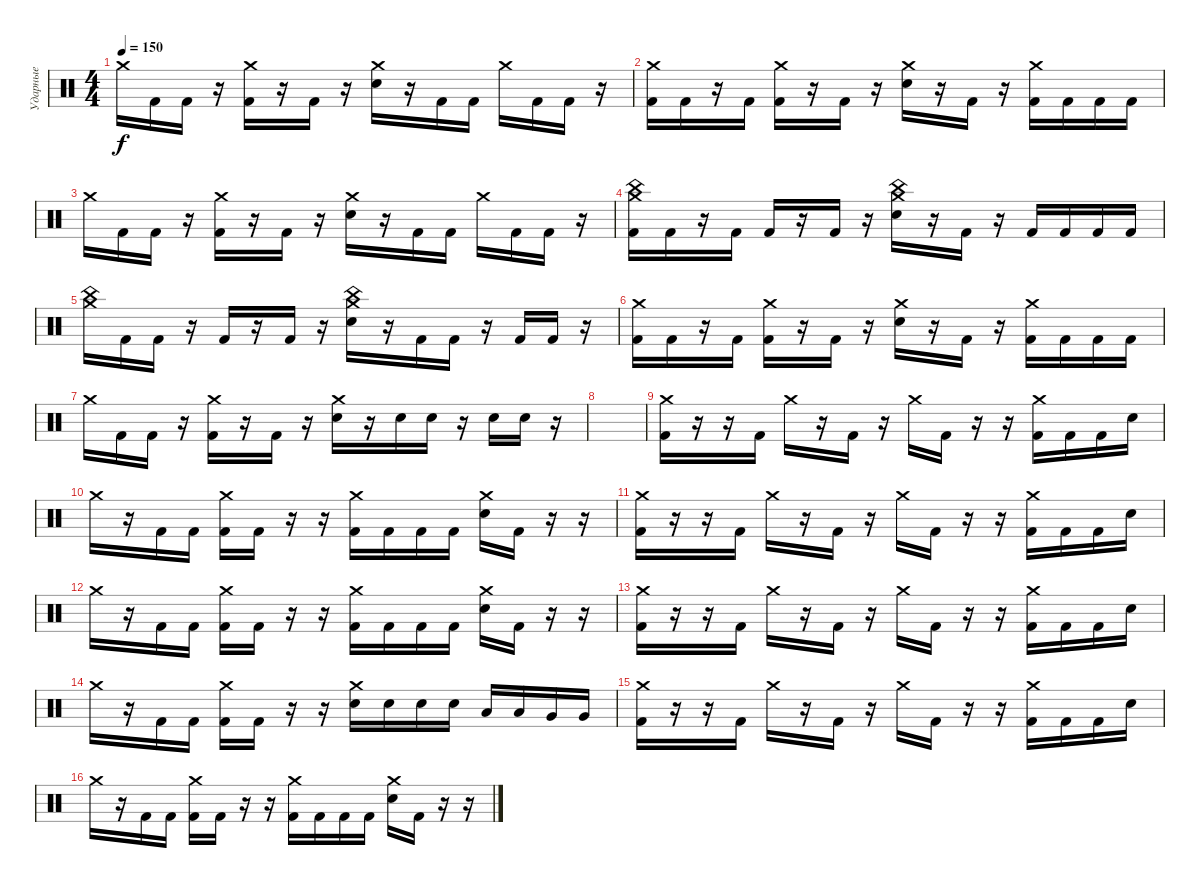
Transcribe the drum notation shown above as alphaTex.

\track ("Ударные" "Ударные") {instrument percussion}
\staff {score}
\articulation defaults
\ts (4 4)
\tempo 150
\clef neutral
\ks c "Crash medium (hit)".16{dy f} "Kick (hit) 2".16 "Kick (hit) 2".16
r.16 ("Crash medium (hit)" "Kick (hit) 2").16 r.16 "Kick (hit) 2".16 r.16 ("Crash medium (hit)" "Electric Snare (hit)").16 r.16 "Kick (hit) 2".16 "Kick (hit) 2".16 "Crash medium (hit)".16 "Kick (hit) 2".16 "Kick (hit) 2".16 r.16 |
("Crash medium (hit)" "Kick (hit) 2").16 "Kick (hit) 2".16 r.16 "Kick (hit) 2".16 ("Crash medium (hit)" "Kick (hit) 2").16 r.16 "Kick (hit) 2".16 r.16 ("Crash medium (hit)" "Electric Snare (hit)").16 r.16 "Kick (hit) 2".16 r.16 ("Crash medium (hit)" "Kick (hit) 2").16 "Kick (hit) 2".16 "Kick (hit) 2".16 "Kick (hit) 2".16 |
"Crash medium (hit)".16 "Kick (hit) 2".16 "Kick (hit) 2".16 r.16 ("Crash medium (hit)" "Kick (hit) 2").16 r.16 "Kick (hit) 2".16 r.16 ("Crash medium (hit)" "Electric Snare (hit)").16 r.16 "Kick (hit) 2".16 "Kick (hit) 2".16 "Crash medium (hit)".16 "Kick (hit) 2".16 "Kick (hit) 2".16 r.16 |
("Crash medium (hit)" "China (hit)" "Kick (hit) 2").16 "Kick (hit) 2".16 r.16 "Kick (hit) 2".16 "Kick (hit) 2".16 r.16 "Kick (hit) 2".16 r.16 ("Crash medium (hit)" "China (hit)" "Electric Snare (hit)").16 r.16 "Kick (hit) 2".16 r.16 "Kick (hit) 2".16 "Kick (hit) 2".16 "Kick (hit) 2".16 "Kick (hit) 2".16 |
("Crash medium (hit)" "China (hit)").16 "Kick (hit) 2".16 "Kick (hit) 2".16 r.16 "Kick (hit) 2".16 r.16 "Kick (hit) 2".16 r.16 ("Crash medium (hit)" "China (hit)" "Electric Snare (hit)").16 r.16 "Kick (hit) 2".16 "Kick (hit) 2".16 r.16 "Kick (hit) 2".16 "Kick (hit) 2".16 r.16 |
("Crash medium (hit)" "Kick (hit) 2").16 "Kick (hit) 2".16 r.16 "Kick (hit) 2".16 ("Crash medium (hit)" "Kick (hit) 2").16 r.16 "Kick (hit) 2".16 r.16 ("Crash medium (hit)" "Electric Snare (hit)").16 r.16 "Kick (hit) 2".16 r.16 ("Crash medium (hit)" "Kick (hit) 2").16 "Kick (hit) 2".16 "Kick (hit) 2".16 "Kick (hit) 2".16 |
"Crash medium (hit)".16 "Kick (hit) 2".16 "Kick (hit) 2".16 r.16 ("Crash medium (hit)" "Kick (hit) 2").16 r.16 "Kick (hit) 2".16 r.16 ("Crash medium (hit)" "Electric Snare (hit)").16 r.16 "Electric Snare (hit)".16 "Electric Snare (hit)".16 r.16 "Electric Snare (hit)".16 "Electric Snare (hit)".16 r.16 |
|
("Crash medium (hit)" "Kick (hit) 2").16 r.16 r.16 "Kick (hit) 2".16 "Crash medium (hit)".16 r.16 "Kick (hit) 2".16 r.16 "Crash medium (hit)".16 "Kick (hit) 2".16 r.16 r.16 ("Crash medium (hit)" "Kick (hit) 2").16 "Kick (hit) 2".16 "Kick (hit) 2".16 "Electric Snare (hit)".16 |
"Crash medium (hit)".16 r.16 "Kick (hit) 2".16 "Kick (hit) 2".16 ("Crash medium (hit)" "Kick (hit) 2").16 "Kick (hit) 2".16 r.16 r.16 ("Crash medium (hit)" "Kick (hit) 2").16 "Kick (hit) 2".16 "Kick (hit) 2".16 "Kick (hit) 2".16 ("Crash medium (hit)" "Electric Snare (hit)").16 "Kick (hit) 2".16 r.16 r.16 |
("Crash medium (hit)" "Kick (hit) 2").16 r.16 r.16 "Kick (hit) 2".16 "Crash medium (hit)".16 r.16 "Kick (hit) 2".16 r.16 "Crash medium (hit)".16 "Kick (hit) 2".16 r.16 r.16 ("Crash medium (hit)" "Kick (hit) 2").16 "Kick (hit) 2".16 "Kick (hit) 2".16 "Electric Snare (hit)".16 |
"Crash medium (hit)".16 r.16 "Kick (hit) 2".16 "Kick (hit) 2".16 ("Crash medium (hit)" "Kick (hit) 2").16 "Kick (hit) 2".16 r.16 r.16 ("Crash medium (hit)" "Kick (hit) 2").16 "Kick (hit) 2".16 "Kick (hit) 2".16 "Kick (hit) 2".16 ("Crash medium (hit)" "Electric Snare (hit)").16 "Kick (hit) 2".16 r.16 r.16 |
("Crash medium (hit)" "Kick (hit) 2").16 r.16 r.16 "Kick (hit) 2".16 "Crash medium (hit)".16 r.16 "Kick (hit) 2".16 r.16 "Crash medium (hit)".16 "Kick (hit) 2".16 r.16 r.16 ("Crash medium (hit)" "Kick (hit) 2").16 "Kick (hit) 2".16 "Kick (hit) 2".16 "Electric Snare (hit)".16 |
"Crash medium (hit)".16 r.16 "Kick (hit) 2".16 "Kick (hit) 2".16 ("Crash medium (hit)" "Kick (hit) 2").16 "Kick (hit) 2".16 r.16 r.16 ("Crash medium (hit)" "Electric Snare (hit)").16 "Electric Snare (hit)".16 "Electric Snare (hit)".16 "Electric Snare (hit)".16 "Low Tom (hit)".16 "Low Tom (hit)".16 "Very Low Tom (hit)".16 "Very Low Tom (hit)".16 |
("Crash medium (hit)" "Kick (hit) 2").16 r.16 r.16 "Kick (hit) 2".16 "Crash medium (hit)".16 r.16 "Kick (hit) 2".16 r.16 "Crash medium (hit)".16 "Kick (hit) 2".16 r.16 r.16 ("Crash medium (hit)" "Kick (hit) 2").16 "Kick (hit) 2".16 "Kick (hit) 2".16 "Electric Snare (hit)".16 |
"Crash medium (hit)".16 r.16 "Kick (hit) 2".16 "Kick (hit) 2".16 ("Crash medium (hit)" "Kick (hit) 2").16 "Kick (hit) 2".16 r.16 r.16 ("Crash medium (hit)" "Kick (hit) 2").16 "Kick (hit) 2".16 "Kick (hit) 2".16 "Kick (hit) 2".16 ("Crash medium (hit)" "Electric Snare (hit)").16 "Kick (hit) 2".16 r.16 r.16
